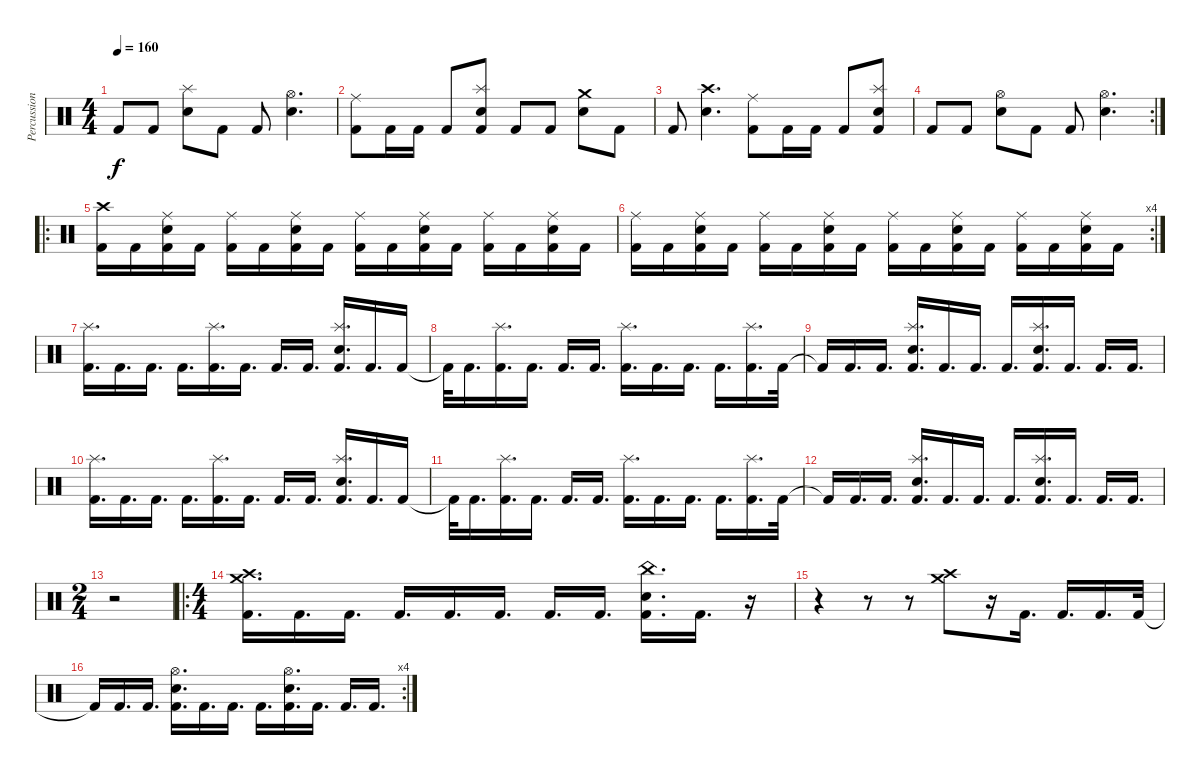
\track ("Percussion" "Percussion") {instrument percussion}
\staff {score}
\articulation defaults
\ts (4 4)
\tempo 160
\clef neutral
\ks c "Kick (hit) 2".8{dy f} "Kick (hit) 2".8
("Splash (hit)" "Snare (hit) 2").8 "Kick (hit) 2".8 "Kick (hit) 2".8 ("Hi-Hat (open)" "Snare (hit) 2").4{d} |
("Ride (middle)" "Kick (hit) 2").8 "Kick (hit) 2".16 "Kick (hit) 2".16 "Kick (hit) 2".8 ("Splash (hit)" "Snare (hit) 2" "Kick (hit) 2").8 "Kick (hit) 2".8 "Kick (hit) 2".8 ("Crash medium (hit)" "Snare (hit) 2").8 "Kick (hit) 2".8 |
"Kick (hit) 2".8 ("Crash high (hit)" "Snare (hit) 2").4{d} ("Ride (middle)" "Kick (hit) 2").8 "Kick (hit) 2".16 "Kick (hit) 2".16 "Kick (hit) 2".8 ("Splash (hit)" "Snare (hit) 2" "Kick (hit) 2").8 |
\rc 2 "Kick (hit) 2".8 "Kick (hit) 2".8
("Hi-Hat (open)" "Snare (hit) 2").8 "Kick (hit) 2".8 "Kick (hit) 2".8 ("Hi-Hat (open)" "Snare (hit) 2").4{d} |
\ro
("Crash high (hit)" "Kick (hit) 2").16 "Kick (hit) 2".16 ("Ride (middle)" "Snare (hit) 2" "Kick (hit) 2").16 "Kick (hit) 2".16 ("Ride (middle)" "Kick (hit) 2").16 "Kick (hit) 2".16 ("Ride (middle)" "Snare (hit) 2" "Kick (hit) 2").16 "Kick (hit) 2".16 ("Ride (middle)" "Kick (hit) 2").16 "Kick (hit) 2".16 ("Ride (middle)" "Snare (hit) 2" "Kick (hit) 2").16 "Kick (hit) 2".16 ("Ride (middle)" "Kick (hit) 2").16 "Kick (hit) 2".16 ("Ride (middle)" "Snare (hit) 2" "Kick (hit) 2").16 "Kick (hit) 2".16 |
\rc 4
("Ride (middle)" "Kick (hit) 2").16 "Kick (hit) 2".16 ("Ride (middle)" "Snare (hit) 2" "Kick (hit) 2").16 "Kick (hit) 2".16 ("Ride (middle)" "Kick (hit) 2").16 "Kick (hit) 2".16 ("Ride (middle)" "Snare (hit) 2" "Kick (hit) 2").16 "Kick (hit) 2".16 ("Ride (middle)" "Kick (hit) 2").16 "Kick (hit) 2".16 ("Ride (middle)" "Snare (hit) 2" "Kick (hit) 2").16 "Kick (hit) 2".16 ("Ride (middle)" "Kick (hit) 2").16 "Kick (hit) 2".16 ("Ride (middle)" "Snare (hit) 2" "Kick (hit) 2").16 "Kick (hit) 2".16 |
("Splash (hit)" "Kick (hit) 2").16{d} "Kick (hit) 2".16{d} "Kick (hit) 2".16{d} "Kick (hit) 2".16{d} ("Splash (hit)" "Kick (hit) 2").16{d} "Kick (hit) 2".16{d} "Kick (hit) 2".16{d} "Kick (hit) 2".16{d} ("Splash (hit)" "Snare (hit) 2" "Kick (hit) 2").16{d} "Kick (hit) 2".16{d} "Kick (hit) 2".16 |
"Kick (hit) 2"{t}.32 "Kick (hit) 2".16{d} ("Splash (hit)" "Kick (hit) 2").16{d} "Kick (hit) 2".16{d} "Kick (hit) 2".16{d} "Kick (hit) 2".16{d} ("Splash (hit)" "Kick (hit) 2").16{d} "Kick (hit) 2".16{d} "Kick (hit) 2".16{d} "Kick (hit) 2".16{d} ("Splash (hit)" "Kick (hit) 2").16{d} "Kick (hit) 2".32 |
"Kick (hit) 2"{t}.16 "Kick (hit) 2".16{d} "Kick (hit) 2".16{d} ("Splash (hit)" "Snare (hit) 2" "Kick (hit) 2").16{d} "Kick (hit) 2".16{d} "Kick (hit) 2".16{d} "Kick (hit) 2".16{d} ("Splash (hit)" "Snare (hit) 2" "Kick (hit) 2").16{d} "Kick (hit) 2".16{d} "Kick (hit) 2".16{d} "Kick (hit) 2".16{d} |
("Splash (hit)" "Kick (hit) 2").16{d} "Kick (hit) 2".16{d} "Kick (hit) 2".16{d} "Kick (hit) 2".16{d} ("Splash (hit)" "Kick (hit) 2").16{d} "Kick (hit) 2".16{d} "Kick (hit) 2".16{d} "Kick (hit) 2".16{d} ("Splash (hit)" "Snare (hit) 2" "Kick (hit) 2").16{d} "Kick (hit) 2".16{d} "Kick (hit) 2".16 |
"Kick (hit) 2"{t}.32 "Kick (hit) 2".16{d} ("Splash (hit)" "Kick (hit) 2").16{d} "Kick (hit) 2".16{d} "Kick (hit) 2".16{d} "Kick (hit) 2".16{d} ("Splash (hit)" "Kick (hit) 2").16{d} "Kick (hit) 2".16{d} "Kick (hit) 2".16{d} "Kick (hit) 2".16{d} ("Splash (hit)" "Kick (hit) 2").16{d} "Kick (hit) 2".32 |
"Kick (hit) 2"{t}.16 "Kick (hit) 2".16{d} "Kick (hit) 2".16{d} ("Splash (hit)" "Snare (hit) 2" "Kick (hit) 2").16{d} "Kick (hit) 2".16{d} "Kick (hit) 2".16{d} "Kick (hit) 2".16{d} ("Splash (hit)" "Snare (hit) 2" "Kick (hit) 2").16{d} "Kick (hit) 2".16{d} "Kick (hit) 2".16{d} "Kick (hit) 2".16{d} |
\ts (2 4)
r.2 |
\ro
\ts (4 4)
("Crash high (hit)" "Crash medium (hit)" "Kick (hit) 2").16{d} "Kick (hit) 2".16{d} "Kick (hit) 2".16{d} "Kick (hit) 2".16{d} "Kick (hit) 2".16{d} "Kick (hit) 2".16{d} "Kick (hit) 2".16{d} "Kick (hit) 2".16{d} ("China (hit)" "Snare (hit) 2" "Kick (hit) 2").16{d} "Kick (hit) 2".16{d} r.16 |
r.4 r.8 r.8 ("Crash high (hit)" "Crash medium (hit)").8 r.16 "Kick (hit) 2".16{d} "Kick (hit) 2".16{d} "Kick (hit) 2".16{d} "Kick (hit) 2".32 |
\rc 4 "Kick (hit) 2"{t}.16 "Kick (hit) 2".16{d} "Kick (hit) 2".16{d}
("Hi-Hat (open)" "Snare (hit) 2" "Kick (hit) 2").16{d} "Kick (hit) 2".16{d} "Kick (hit) 2".16{d} "Kick (hit) 2".16{d} ("Hi-Hat (open)" "Snare (hit) 2" "Kick (hit) 2").16{d} "Kick (hit) 2".16{d} "Kick (hit) 2".16{d} "Kick (hit) 2".16{d}
